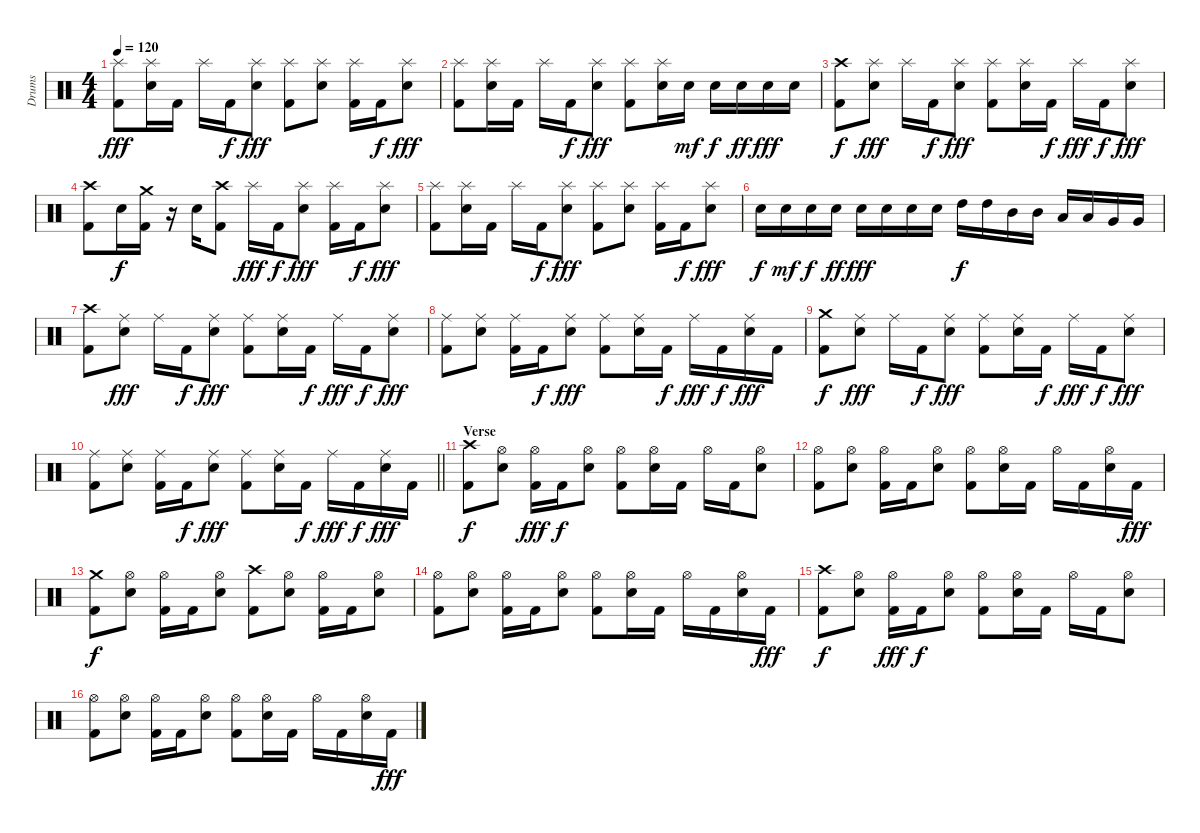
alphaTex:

\track ("Drums" "Drums") {instrument percussion}
\staff {score}
\articulation defaults
\ts (4 4)
\tempo 120
\clef neutral
\ks c
("Splash (hit)" "Kick (hit) 2").8{dy fff} ("Splash (hit)" "Snare (hit) 2").16 "Kick (hit) 2".16 "Splash (hit)".16 "Kick (hit) 2".16{dy f} ("Splash (hit)" "Snare (hit) 2").8{dy fff} ("Splash (hit)" "Kick (hit) 2").8 ("Splash (hit)" "Snare (hit) 2").8 ("Splash (hit)" "Kick (hit) 2").16 "Kick (hit) 2".16{dy f} ("Splash (hit)" "Snare (hit) 2").8{dy fff} |
("Splash (hit)" "Kick (hit) 2").8 ("Splash (hit)" "Snare (hit) 2").16 "Kick (hit) 2".16 "Splash (hit)".16 "Kick (hit) 2".16{dy f} ("Splash (hit)" "Snare (hit) 2").8{dy fff} ("Splash (hit)" "Kick (hit) 2").8 ("Splash (hit)" "Snare (hit) 2").16 "Snare (hit) 2".16{dy mf} "Snare (hit) 2".16{dy f} "Snare (hit) 2".16{dy ff} "Snare (hit) 2".16{dy fff} "Snare (hit) 2".16 |
("Crash high (hit)" "Kick (hit) 2").8{dy f} ("Splash (hit)" "Snare (hit) 2").8{dy fff} "Splash (hit)".16 "Kick (hit) 2".16{dy f} ("Splash (hit)" "Snare (hit) 2").8{dy fff} ("Splash (hit)" "Kick (hit) 2").8 ("Splash (hit)" "Snare (hit) 2").16 "Kick (hit) 2".16{dy f} "Splash (hit)".16{dy fff} "Kick (hit) 2".16{dy f} ("Splash (hit)" "Snare (hit) 2").8{dy fff} |
("Crash high (hit)" "Kick (hit) 2").8 "Snare (hit) 2".16{dy f} ("Crash medium (hit)" "Kick (hit) 2").16 r.16 "Snare (hit) 2".16 ("Crash high (hit)" "Kick (hit) 2").8 "Splash (hit)".16{dy fff} "Kick (hit) 2".16{dy f} ("Splash (hit)" "Snare (hit) 2").8{dy fff} ("Splash (hit)" "Kick (hit) 2").16 "Kick (hit) 2".16{dy f} ("Splash (hit)" "Snare (hit) 2").8{dy fff} |
("Splash (hit)" "Kick (hit) 2").8 ("Splash (hit)" "Snare (hit) 2").16 "Kick (hit) 2".16 "Splash (hit)".16 "Kick (hit) 2".16{dy f} ("Splash (hit)" "Snare (hit) 2").8{dy fff} ("Splash (hit)" "Kick (hit) 2").8 ("Splash (hit)" "Snare (hit) 2").8 ("Splash (hit)" "Kick (hit) 2").16 "Kick (hit) 2".16{dy f} ("Splash (hit)" "Snare (hit) 2").8{dy fff} |
"Snare (hit) 2".16{dy f} "Snare (hit) 2".16{dy mf} "Snare (hit) 2".16{dy f} "Snare (hit) 2".16{dy ff} "Snare (hit) 2".16{dy fff} "Snare (hit) 2".16 "Snare (hit) 2".16 "Snare (hit) 2".16 "High Tom (hit)".16{dy f} "High Tom (hit)".16 "Mid Tom (hit)".16 "Mid Tom (hit)".16 "Low Tom (hit)".16 "Low Tom (hit)".16 "Very Low Tom (hit)".16 "Very Low Tom (hit)".16 |
("Crash high (hit)" "Kick (hit) 2").8 ("Ride (middle)" "Snare (hit) 2").8{dy fff} "Ride (middle)".16 "Kick (hit) 2".16{dy f} ("Ride (middle)" "Snare (hit) 2").8{dy fff} ("Ride (middle)" "Kick (hit) 2").8 ("Ride (middle)" "Snare (hit) 2").16 "Kick (hit) 2".16{dy f} "Ride (middle)".16{dy fff} "Kick (hit) 2".16{dy f} ("Ride (middle)" "Snare (hit) 2").8{dy fff} |
("Ride (middle)" "Kick (hit) 2").8 ("Ride (middle)" "Snare (hit) 2").8 ("Ride (middle)" "Kick (hit) 2").16 "Kick (hit) 2".16{dy f} ("Ride (middle)" "Snare (hit) 2").8{dy fff} ("Ride (middle)" "Kick (hit) 2").8 ("Ride (middle)" "Snare (hit) 2").16 "Kick (hit) 2".16{dy f} "Ride (middle)".16{dy fff} "Kick (hit) 2".16{dy f} ("Ride (middle)" "Snare (hit) 2").16{dy fff} "Kick (hit) 2".16 |
("Crash medium (hit)" "Kick (hit) 2").8{dy f} ("Ride (middle)" "Snare (hit) 2").8{dy fff} "Ride (middle)".16 "Kick (hit) 2".16{dy f} ("Ride (middle)" "Snare (hit) 2").8{dy fff} ("Ride (middle)" "Kick (hit) 2").8 ("Ride (middle)" "Snare (hit) 2").16 "Kick (hit) 2".16{dy f} "Ride (middle)".16{dy fff} "Kick (hit) 2".16{dy f} ("Ride (middle)" "Snare (hit) 2").8{dy fff} |
\barLineRight lightlight
("Ride (middle)" "Kick (hit) 2").8 ("Ride (middle)" "Snare (hit) 2").8 ("Ride (middle)" "Kick (hit) 2").16 "Kick (hit) 2".16{dy f} ("Ride (middle)" "Snare (hit) 2").8{dy fff} ("Ride (middle)" "Kick (hit) 2").8 ("Ride (middle)" "Snare (hit) 2").16 "Kick (hit) 2".16{dy f} "Ride (middle)".16{dy fff} "Kick (hit) 2".16{dy f} ("Ride (middle)" "Snare (hit) 2").16{dy fff} "Kick (hit) 2".16 |
\section ("" "Verse")
("Crash high (hit)" "Kick (hit) 2").8{dy f} ("Hi-Hat (open)" "Snare (hit) 2").8 ("Hi-Hat (open)" "Kick (hit) 2").16{dy fff} "Kick (hit) 2".16{dy f} ("Hi-Hat (open)" "Snare (hit) 2").8 ("Hi-Hat (open)" "Kick (hit) 2").8 ("Hi-Hat (open)" "Snare (hit) 2").16 "Kick (hit) 2".16 "Hi-Hat (open)".16 "Kick (hit) 2".16 ("Hi-Hat (open)" "Snare (hit) 2").8 |
("Hi-Hat (open)" "Kick (hit) 2").8 ("Hi-Hat (open)" "Snare (hit) 2").8 ("Hi-Hat (open)" "Kick (hit) 2").16 "Kick (hit) 2".16 ("Hi-Hat (open)" "Snare (hit) 2").8 ("Hi-Hat (open)" "Kick (hit) 2").8 ("Hi-Hat (open)" "Snare (hit) 2").16 "Kick (hit) 2".16 "Hi-Hat (open)".16 "Kick (hit) 2".16 ("Hi-Hat (open)" "Snare (hit) 2").16 "Kick (hit) 2".16{dy fff} |
("Crash medium (hit)" "Kick (hit) 2").8{dy f} ("Hi-Hat (open)" "Snare (hit) 2").8 ("Hi-Hat (open)" "Kick (hit) 2").16 "Kick (hit) 2".16 ("Hi-Hat (open)" "Snare (hit) 2").8 ("Crash high (hit)" "Kick (hit) 2").8 ("Hi-Hat (open)" "Snare (hit) 2").8 ("Hi-Hat (open)" "Kick (hit) 2").16 "Kick (hit) 2".16 ("Hi-Hat (open)" "Snare (hit) 2").8 |
("Hi-Hat (open)" "Kick (hit) 2").8 ("Hi-Hat (open)" "Snare (hit) 2").8 ("Hi-Hat (open)" "Kick (hit) 2").16 "Kick (hit) 2".16 ("Hi-Hat (open)" "Snare (hit) 2").8 ("Hi-Hat (open)" "Kick (hit) 2").8 ("Hi-Hat (open)" "Snare (hit) 2").16 "Kick (hit) 2".16 "Hi-Hat (open)".16 "Kick (hit) 2".16 ("Hi-Hat (open)" "Snare (hit) 2").16 "Kick (hit) 2".16{dy fff} |
("Crash high (hit)" "Kick (hit) 2").8{dy f} ("Hi-Hat (open)" "Snare (hit) 2").8 ("Hi-Hat (open)" "Kick (hit) 2").16{dy fff} "Kick (hit) 2".16{dy f} ("Hi-Hat (open)" "Snare (hit) 2").8 ("Hi-Hat (open)" "Kick (hit) 2").8 ("Hi-Hat (open)" "Snare (hit) 2").16 "Kick (hit) 2".16 "Hi-Hat (open)".16 "Kick (hit) 2".16 ("Hi-Hat (open)" "Snare (hit) 2").8 |
("Hi-Hat (open)" "Kick (hit) 2").8 ("Hi-Hat (open)" "Snare (hit) 2").8 ("Hi-Hat (open)" "Kick (hit) 2").16 "Kick (hit) 2".16 ("Hi-Hat (open)" "Snare (hit) 2").8 ("Hi-Hat (open)" "Kick (hit) 2").8 ("Hi-Hat (open)" "Snare (hit) 2").16 "Kick (hit) 2".16 "Hi-Hat (open)".16 "Kick (hit) 2".16 ("Hi-Hat (open)" "Snare (hit) 2").16 "Kick (hit) 2".16{dy fff}
